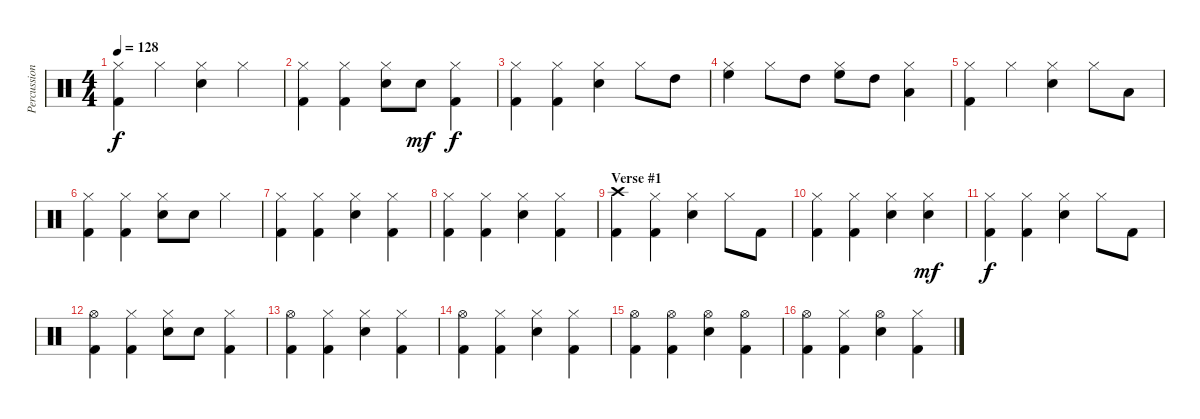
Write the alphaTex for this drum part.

\track ("Percussion" "Percussion") {instrument percussion}
\staff {score}
\articulation defaults
\ts (4 4)
\tempo 128
\clef neutral
\ks c
("Hi-Hat (closed)" "Kick (hit) 2").4{dy f} "Hi-Hat (closed)".4 ("Hi-Hat (closed)" "Electric Snare (hit)").4 "Hi-Hat (closed)".4 |
("Hi-Hat (closed)" "Kick (hit) 2").4 ("Hi-Hat (closed)" "Kick (hit) 2").4 ("Hi-Hat (closed)" "Electric Snare (hit)").8 "Electric Snare (hit)".8{dy mf} ("Hi-Hat (closed)" "Kick (hit) 2").4{dy f} |
("Hi-Hat (closed)" "Kick (hit) 2").4 ("Hi-Hat (closed)" "Kick (hit) 2").4 ("Hi-Hat (closed)" "Electric Snare (hit)").4 "Hi-Hat (closed)".8 "High Tom (hit)".8 |
("Hi-Hat (closed)" "High Floor Tom (hit)").4 "Hi-Hat (closed)".8 "High Tom (hit)".8 ("Hi-Hat (closed)" "High Floor Tom (hit)").8 "High Tom (hit)".8 ("Hi-Hat (closed)" "Low Tom (hit)").4 |
("Hi-Hat (closed)" "Kick (hit) 2").4 "Hi-Hat (closed)".4 ("Hi-Hat (closed)" "Electric Snare (hit)").4 "Hi-Hat (closed)".8 "Low Tom (hit)".8 |
("Hi-Hat (closed)" "Kick (hit) 2").4 ("Hi-Hat (closed)" "Kick (hit) 2").4 ("Hi-Hat (closed)" "Electric Snare (hit)").8 "Electric Snare (hit)".8 "Hi-Hat (closed)".4 |
("Hi-Hat (closed)" "Kick (hit) 2").4 ("Hi-Hat (closed)" "Kick (hit) 2").4 ("Hi-Hat (closed)" "Electric Snare (hit)").4 ("Hi-Hat (closed)" "Kick (hit) 2").4 |
("Hi-Hat (closed)" "Kick (hit) 2").4 ("Hi-Hat (closed)" "Kick (hit) 2").4 ("Hi-Hat (closed)" "Electric Snare (hit)").4 ("Hi-Hat (closed)" "Kick (hit) 2").4 |
\section ("" "Verse #1")
("Crash high (hit)" "Kick (hit) 2").4 ("Hi-Hat (closed)" "Kick (hit) 2").4 ("Hi-Hat (closed)" "Electric Snare (hit)").4 "Hi-Hat (closed)".8 "Kick (hit) 2".8 |
("Hi-Hat (closed)" "Kick (hit) 2").4 ("Hi-Hat (closed)" "Kick (hit) 2").4 ("Hi-Hat (closed)" "Electric Snare (hit)").4 ("Hi-Hat (closed)" "Electric Snare (hit)").4{dy mf} |
("Hi-Hat (closed)" "Kick (hit) 2").4{dy f} ("Hi-Hat (closed)" "Kick (hit) 2").4 ("Hi-Hat (closed)" "Electric Snare (hit)").4 "Hi-Hat (closed)".8 "Kick (hit) 2".8 |
("Hi-Hat (open)" "Kick (hit) 2").4 ("Hi-Hat (closed)" "Kick (hit) 2").4 ("Hi-Hat (closed)" "Electric Snare (hit)").8 "Electric Snare (hit)".8 ("Hi-Hat (closed)" "Kick (hit) 2").4 |
("Hi-Hat (open)" "Kick (hit) 2").4 ("Hi-Hat (closed)" "Kick (hit) 2").4 ("Hi-Hat (closed)" "Electric Snare (hit)").4 ("Hi-Hat (closed)" "Kick (hit) 2").4 |
("Hi-Hat (open)" "Kick (hit) 2").4 ("Hi-Hat (closed)" "Kick (hit) 2").4 ("Hi-Hat (closed)" "Electric Snare (hit)").4 ("Hi-Hat (closed)" "Kick (hit) 2").4 |
("Hi-Hat (open)" "Kick (hit) 2").4 ("Hi-Hat (open)" "Kick (hit) 2").4 ("Hi-Hat (open)" "Electric Snare (hit)").4 ("Hi-Hat (open)" "Kick (hit) 2").4 |
("Hi-Hat (open)" "Kick (hit) 2").4 ("Hi-Hat (closed)" "Kick (hit) 2").4 ("Hi-Hat (open)" "Electric Snare (hit)").4 ("Hi-Hat (closed)" "Kick (hit) 2").4
